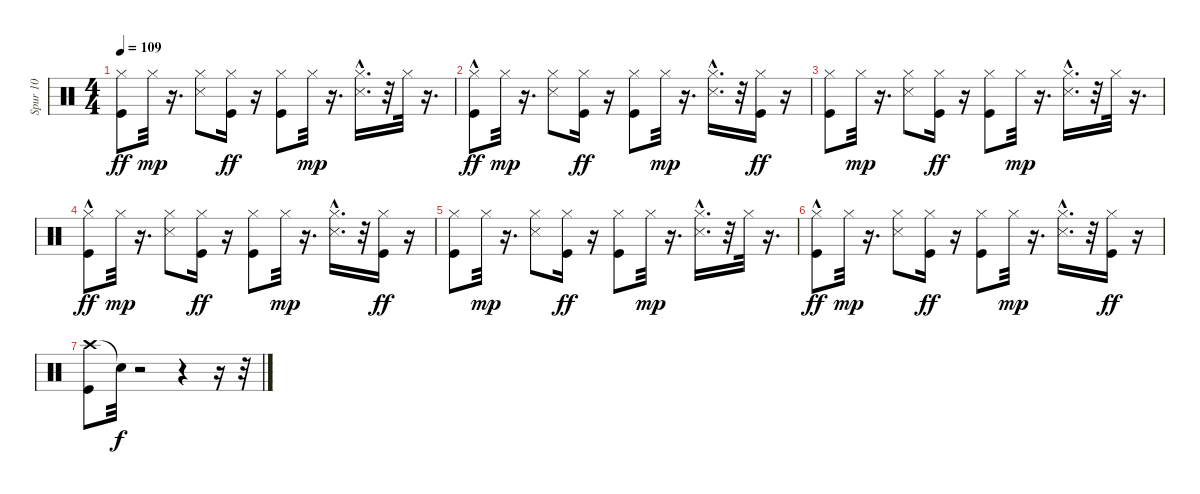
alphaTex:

\track ("Spur 10" "Spur 10") {instrument percussion}
\staff {score}
\articulation defaults
\ts (4 4)
\tempo 109
\clef neutral
\ks c
("Hi-Hat (closed)" "Kick (hit)").8{dy ff} "Hi-Hat (closed)".32{dy mp} r.16{d} ("Hi-Hat (closed)" "Snare (side stick) 3").8 ("Hi-Hat (closed)" "Kick (hit)").16{dy ff} r.16 ("Hi-Hat (closed)" "Kick (hit)").8 "Hi-Hat (closed)".32{dy mp} r.16{d} ("Hi-Hat (closed)" "Snare (side stick) 3"{hac}).16{d} r.32 "Hi-Hat (closed)".32 r.16{d} |
("Hi-Hat (closed)" "Kick (hit)"{hac}).8{dy ff} "Hi-Hat (closed)".32{dy mp} r.16{d} ("Hi-Hat (closed)" "Snare (side stick) 3").8 ("Hi-Hat (closed)" "Kick (hit)").16{dy ff} r.16 ("Hi-Hat (closed)" "Kick (hit)").8 "Hi-Hat (closed)".32{dy mp} r.16{d} ("Hi-Hat (closed)" "Snare (side stick) 3"{hac}).16{d} r.32 ("Hi-Hat (closed)" "Kick (hit)").16{dy ff} r.16 |
("Hi-Hat (closed)" "Kick (hit)").8 "Hi-Hat (closed)".32{dy mp} r.16{d} ("Hi-Hat (closed)" "Snare (side stick) 3").8 ("Hi-Hat (closed)" "Kick (hit)").16{dy ff} r.16 ("Hi-Hat (closed)" "Kick (hit)").8 "Hi-Hat (closed)".32{dy mp} r.16{d} ("Hi-Hat (closed)" "Snare (side stick) 3"{hac}).16{d} r.32 "Hi-Hat (closed)".32 r.16{d} |
("Hi-Hat (closed)" "Kick (hit)"{hac}).8{dy ff} "Hi-Hat (closed)".32{dy mp} r.16{d} ("Hi-Hat (closed)" "Snare (side stick) 3").8 ("Hi-Hat (closed)" "Kick (hit)").16{dy ff} r.16 ("Hi-Hat (closed)" "Kick (hit)").8 "Hi-Hat (closed)".32{dy mp} r.16{d} ("Hi-Hat (closed)" "Snare (side stick) 3"{hac}).16{d} r.32 ("Hi-Hat (closed)" "Kick (hit)").16{dy ff} r.16 |
("Hi-Hat (closed)" "Kick (hit)").8 "Hi-Hat (closed)".32{dy mp} r.16{d} ("Hi-Hat (closed)" "Snare (side stick) 3").8 ("Hi-Hat (closed)" "Kick (hit)").16{dy ff} r.16 ("Hi-Hat (closed)" "Kick (hit)").8 "Hi-Hat (closed)".32{dy mp} r.16{d} ("Hi-Hat (closed)" "Snare (side stick) 3"{hac}).16{d} r.32 "Hi-Hat (closed)".32 r.16{d} |
("Hi-Hat (closed)" "Kick (hit)"{hac}).8{dy ff} "Hi-Hat (closed)".32{dy mp} r.16{d} ("Hi-Hat (closed)" "Snare (side stick) 3").8 ("Hi-Hat (closed)" "Kick (hit)").16{dy ff} r.16 ("Hi-Hat (closed)" "Kick (hit)").8 "Hi-Hat (closed)".32{dy mp} r.16{d} ("Hi-Hat (closed)" "Snare (side stick) 3"{hac}).16{d} r.32 ("Hi-Hat (closed)" "Kick (hit)").16{dy ff} r.16 |
("Crash high (hit)" "Kick (hit)").8 "Snare (hit)"{t}.32{dy f} r.2 r.4 r.16 r.32
